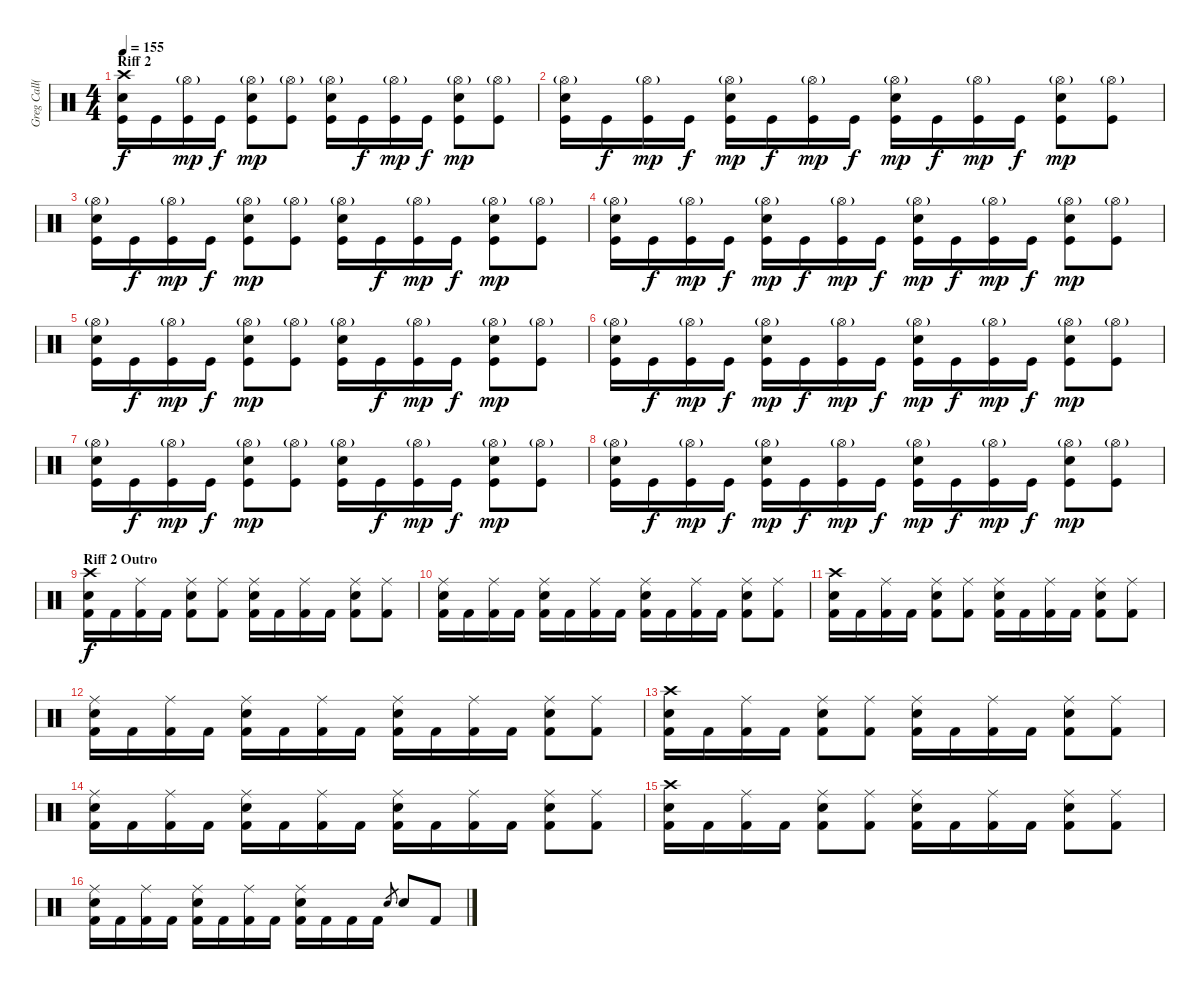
\track ("Greg Call(Drums)" "Greg Call(") {instrument percussion}
\staff {score}
\articulation defaults
\ts (4 4)
\section ("" "Riff 2")
\tempo 155
\clef neutral
\ks c
("Kick (hit)" "Crash high (hit)" "Snare (hit) 2").16{dy f} "Kick (hit)".16 ("Hi-Hat (open)"{g} "Kick (hit)").16{dy mp} "Kick (hit)".16{dy f} ("Kick (hit)" "Hi-Hat (open)"{g} "Snare (hit) 2").8{dy mp} ("Hi-Hat (open)"{g} "Kick (hit)").8 ("Kick (hit)" "Hi-Hat (open)"{g} "Snare (hit) 2").16 "Kick (hit)".16{dy f} ("Hi-Hat (open)"{g} "Kick (hit)").16{dy mp} "Kick (hit)".16{dy f} ("Kick (hit)" "Hi-Hat (open)"{g} "Snare (hit) 2").8{dy mp} ("Hi-Hat (open)"{g} "Kick (hit)").8 |
("Kick (hit)" "Hi-Hat (open)"{g} "Snare (hit) 2").16 "Kick (hit)".16{dy f} ("Hi-Hat (open)"{g} "Kick (hit)").16{dy mp} "Kick (hit)".16{dy f} ("Kick (hit)" "Hi-Hat (open)"{g} "Snare (hit) 2").16{dy mp} "Kick (hit)".16{dy f} ("Hi-Hat (open)"{g} "Kick (hit)").16{dy mp} "Kick (hit)".16{dy f} ("Kick (hit)" "Hi-Hat (open)"{g} "Snare (hit) 2").16{dy mp} "Kick (hit)".16{dy f} ("Hi-Hat (open)"{g} "Kick (hit)").16{dy mp} "Kick (hit)".16{dy f} ("Kick (hit)" "Hi-Hat (open)"{g} "Snare (hit) 2").8{dy mp} ("Hi-Hat (open)"{g} "Kick (hit)").8 |
("Kick (hit)" "Hi-Hat (open)"{g} "Snare (hit) 2").16 "Kick (hit)".16{dy f} ("Hi-Hat (open)"{g} "Kick (hit)").16{dy mp} "Kick (hit)".16{dy f} ("Kick (hit)" "Hi-Hat (open)"{g} "Snare (hit) 2").8{dy mp} ("Hi-Hat (open)"{g} "Kick (hit)").8 ("Kick (hit)" "Hi-Hat (open)"{g} "Snare (hit) 2").16 "Kick (hit)".16{dy f} ("Hi-Hat (open)"{g} "Kick (hit)").16{dy mp} "Kick (hit)".16{dy f} ("Kick (hit)" "Hi-Hat (open)"{g} "Snare (hit) 2").8{dy mp} ("Hi-Hat (open)"{g} "Kick (hit)").8 |
("Kick (hit)" "Hi-Hat (open)"{g} "Snare (hit) 2").16 "Kick (hit)".16{dy f} ("Hi-Hat (open)"{g} "Kick (hit)").16{dy mp} "Kick (hit)".16{dy f} ("Kick (hit)" "Hi-Hat (open)"{g} "Snare (hit) 2").16{dy mp} "Kick (hit)".16{dy f} ("Hi-Hat (open)"{g} "Kick (hit)").16{dy mp} "Kick (hit)".16{dy f} ("Kick (hit)" "Hi-Hat (open)"{g} "Snare (hit) 2").16{dy mp} "Kick (hit)".16{dy f} ("Hi-Hat (open)"{g} "Kick (hit)").16{dy mp} "Kick (hit)".16{dy f} ("Kick (hit)" "Hi-Hat (open)"{g} "Snare (hit) 2").8{dy mp} ("Hi-Hat (open)"{g} "Kick (hit)").8 |
("Kick (hit)" "Hi-Hat (open)"{g} "Snare (hit) 2").16 "Kick (hit)".16{dy f} ("Hi-Hat (open)"{g} "Kick (hit)").16{dy mp} "Kick (hit)".16{dy f} ("Kick (hit)" "Hi-Hat (open)"{g} "Snare (hit) 2").8{dy mp} ("Hi-Hat (open)"{g} "Kick (hit)").8 ("Kick (hit)" "Hi-Hat (open)"{g} "Snare (hit) 2").16 "Kick (hit)".16{dy f} ("Hi-Hat (open)"{g} "Kick (hit)").16{dy mp} "Kick (hit)".16{dy f} ("Kick (hit)" "Hi-Hat (open)"{g} "Snare (hit) 2").8{dy mp} ("Hi-Hat (open)"{g} "Kick (hit)").8 |
("Kick (hit)" "Hi-Hat (open)"{g} "Snare (hit) 2").16 "Kick (hit)".16{dy f} ("Hi-Hat (open)"{g} "Kick (hit)").16{dy mp} "Kick (hit)".16{dy f} ("Kick (hit)" "Hi-Hat (open)"{g} "Snare (hit) 2").16{dy mp} "Kick (hit)".16{dy f} ("Hi-Hat (open)"{g} "Kick (hit)").16{dy mp} "Kick (hit)".16{dy f} ("Kick (hit)" "Hi-Hat (open)"{g} "Snare (hit) 2").16{dy mp} "Kick (hit)".16{dy f} ("Hi-Hat (open)"{g} "Kick (hit)").16{dy mp} "Kick (hit)".16{dy f} ("Kick (hit)" "Hi-Hat (open)"{g} "Snare (hit) 2").8{dy mp} ("Hi-Hat (open)"{g} "Kick (hit)").8 |
("Kick (hit)" "Hi-Hat (open)"{g} "Snare (hit) 2").16 "Kick (hit)".16{dy f} ("Hi-Hat (open)"{g} "Kick (hit)").16{dy mp} "Kick (hit)".16{dy f} ("Kick (hit)" "Hi-Hat (open)"{g} "Snare (hit) 2").8{dy mp} ("Hi-Hat (open)"{g} "Kick (hit)").8 ("Kick (hit)" "Hi-Hat (open)"{g} "Snare (hit) 2").16 "Kick (hit)".16{dy f} ("Hi-Hat (open)"{g} "Kick (hit)").16{dy mp} "Kick (hit)".16{dy f} ("Kick (hit)" "Hi-Hat (open)"{g} "Snare (hit) 2").8{dy mp} ("Hi-Hat (open)"{g} "Kick (hit)").8 |
("Kick (hit)" "Hi-Hat (open)"{g} "Snare (hit) 2").16 "Kick (hit)".16{dy f} ("Hi-Hat (open)"{g} "Kick (hit)").16{dy mp} "Kick (hit)".16{dy f} ("Kick (hit)" "Hi-Hat (open)"{g} "Snare (hit) 2").16{dy mp} "Kick (hit)".16{dy f} ("Hi-Hat (open)"{g} "Kick (hit)").16{dy mp} "Kick (hit)".16{dy f} ("Kick (hit)" "Hi-Hat (open)"{g} "Snare (hit) 2").16{dy mp} "Kick (hit)".16{dy f} ("Hi-Hat (open)"{g} "Kick (hit)").16{dy mp} "Kick (hit)".16{dy f} ("Kick (hit)" "Hi-Hat (open)"{g} "Snare (hit) 2").8{dy mp} ("Hi-Hat (open)"{g} "Kick (hit)").8 |
\section ("" "Riff 2 Outro")
("Kick (hit) 2" "Crash high (hit)" "Snare (hit) 2").16{dy f} "Kick (hit) 2".16 ("Ride (middle)" "Kick (hit) 2").16 "Kick (hit) 2".16 ("Kick (hit) 2" "Ride (middle)" "Snare (hit) 2").8 ("Ride (middle)" "Kick (hit) 2").8 ("Kick (hit) 2" "Ride (middle)" "Snare (hit) 2").16 "Kick (hit) 2".16 ("Ride (middle)" "Kick (hit) 2").16 "Kick (hit) 2".16 ("Ride (middle)" "Snare (hit) 2" "Kick (hit) 2").8 ("Ride (middle)" "Kick (hit) 2").8 |
("Kick (hit) 2" "Ride (middle)" "Snare (hit) 2").16 "Kick (hit) 2".16 ("Ride (middle)" "Kick (hit) 2").16 "Kick (hit) 2".16 ("Kick (hit) 2" "Ride (middle)" "Snare (hit) 2").16 "Kick (hit) 2".16 ("Ride (middle)" "Kick (hit) 2").16 "Kick (hit) 2".16 ("Kick (hit) 2" "Ride (middle)" "Snare (hit) 2").16 "Kick (hit) 2".16 ("Ride (middle)" "Kick (hit) 2").16 "Kick (hit) 2".16 ("Ride (middle)" "Snare (hit) 2" "Kick (hit) 2").8 ("Ride (middle)" "Kick (hit) 2").8 |
("Kick (hit) 2" "Crash high (hit)" "Snare (hit) 2").16 "Kick (hit) 2".16 ("Ride (middle)" "Kick (hit) 2").16 "Kick (hit) 2".16 ("Kick (hit) 2" "Ride (middle)" "Snare (hit) 2").8 ("Ride (middle)" "Kick (hit) 2").8 ("Kick (hit) 2" "Ride (middle)" "Snare (hit) 2").16 "Kick (hit) 2".16 ("Ride (middle)" "Kick (hit) 2").16 "Kick (hit) 2".16 ("Ride (middle)" "Snare (hit) 2" "Kick (hit) 2").8 ("Ride (middle)" "Kick (hit) 2").8 |
("Kick (hit) 2" "Ride (middle)" "Snare (hit) 2").16 "Kick (hit) 2".16 ("Ride (middle)" "Kick (hit) 2").16 "Kick (hit) 2".16 ("Kick (hit) 2" "Ride (middle)" "Snare (hit) 2").16 "Kick (hit) 2".16 ("Ride (middle)" "Kick (hit) 2").16 "Kick (hit) 2".16 ("Kick (hit) 2" "Ride (middle)" "Snare (hit) 2").16 "Kick (hit) 2".16 ("Ride (middle)" "Kick (hit) 2").16 "Kick (hit) 2".16 ("Ride (middle)" "Snare (hit) 2" "Kick (hit) 2").8 ("Ride (middle)" "Kick (hit) 2").8 |
("Kick (hit) 2" "Crash high (hit)" "Snare (hit) 2").16 "Kick (hit) 2".16 ("Ride (middle)" "Kick (hit) 2").16 "Kick (hit) 2".16 ("Kick (hit) 2" "Ride (middle)" "Snare (hit) 2").8 ("Ride (middle)" "Kick (hit) 2").8 ("Kick (hit) 2" "Ride (middle)" "Snare (hit) 2").16 "Kick (hit) 2".16 ("Ride (middle)" "Kick (hit) 2").16 "Kick (hit) 2".16 ("Ride (middle)" "Snare (hit) 2" "Kick (hit) 2").8 ("Ride (middle)" "Kick (hit) 2").8 |
("Kick (hit) 2" "Ride (middle)" "Snare (hit) 2").16 "Kick (hit) 2".16 ("Ride (middle)" "Kick (hit) 2").16 "Kick (hit) 2".16 ("Kick (hit) 2" "Ride (middle)" "Snare (hit) 2").16 "Kick (hit) 2".16 ("Ride (middle)" "Kick (hit) 2").16 "Kick (hit) 2".16 ("Kick (hit) 2" "Ride (middle)" "Snare (hit) 2").16 "Kick (hit) 2".16 ("Ride (middle)" "Kick (hit) 2").16 "Kick (hit) 2".16 ("Ride (middle)" "Snare (hit) 2" "Kick (hit) 2").8 ("Ride (middle)" "Kick (hit) 2").8 |
("Kick (hit) 2" "Crash high (hit)" "Snare (hit) 2").16 "Kick (hit) 2".16 ("Ride (middle)" "Kick (hit) 2").16 "Kick (hit) 2".16 ("Kick (hit) 2" "Ride (middle)" "Snare (hit) 2").8 ("Ride (middle)" "Kick (hit) 2").8 ("Kick (hit) 2" "Ride (middle)" "Snare (hit) 2").16 "Kick (hit) 2".16 ("Ride (middle)" "Kick (hit) 2").16 "Kick (hit) 2".16 ("Ride (middle)" "Snare (hit) 2" "Kick (hit) 2").8 ("Ride (middle)" "Kick (hit) 2").8 |
("Kick (hit) 2" "Ride (middle)" "Snare (hit) 2").16 "Kick (hit) 2".16 ("Ride (middle)" "Kick (hit) 2").16 "Kick (hit) 2".16 ("Kick (hit) 2" "Ride (middle)" "Snare (hit) 2").16 "Kick (hit) 2".16 ("Ride (middle)" "Kick (hit) 2").16 "Kick (hit) 2".16 ("Kick (hit) 2" "Ride (middle)" "Snare (hit) 2").16 "Kick (hit) 2".16 "Kick (hit) 2".16 "Kick (hit) 2".16 "Snare (hit) 2".8{gr} "Snare (hit) 2".8 "Kick (hit) 2".8
